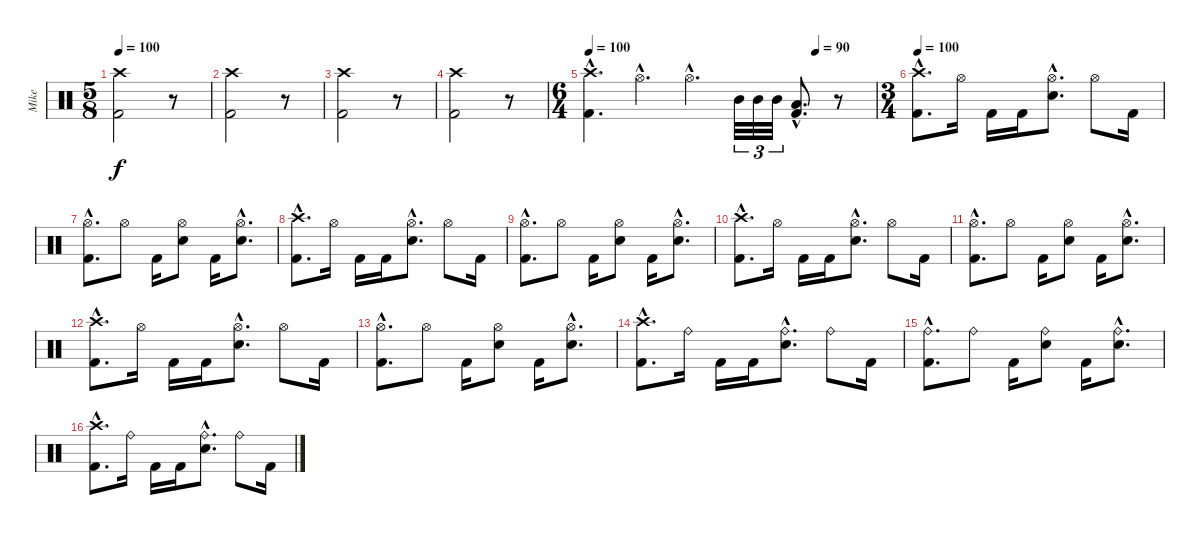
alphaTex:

\track ("Mike" "Mike") {instrument percussion}
\staff {score}
\articulation defaults
\ts (5 8)
\tempo 100
\clef neutral
\ks c
("Crash high (hit)" "Kick (hit) 2").2{dy f} r.8 |
("Crash high (hit)" "Kick (hit) 2").2 r.8 |
("Crash high (hit)" "Kick (hit) 2").2 r.8 |
("Crash high (hit)" "Kick (hit) 2").2 r.8 |
\ts (6 4)
\tempo 100
\tempo (90 0.7916666666666666)
("Crash high (hit)"{hac} "Kick (hit) 2"{hac}).4{d} "Hi-Hat (open)"{hac}.4{d} "Hi-Hat (open)"{hac}.4{d} "Mid Tom (hit)".32{tu (3 2)} "Mid Tom (hit)".32{tu (3 2)} "Mid Tom (hit)".32{tu (3 2)} ("Low Tom (hit)"{hac} "Kick (hit) 2"{hac}).8{d} r.8 |
\ts (3 4)
\tempo 100
("Crash high (hit)"{hac} "Kick (hit) 2"{hac}).8{d} "Hi-Hat (open)".16 "Kick (hit) 2".16 "Kick (hit) 2".16 ("Hi-Hat (open)"{hac} "Snare (hit) 2"{hac}).8{d} "Hi-Hat (open)".8 "Kick (hit) 2".16 |
("Hi-Hat (open)"{hac} "Kick (hit) 2"{hac}).8{d} "Hi-Hat (open)".8 "Kick (hit) 2".16 ("Hi-Hat (open)" "Snare (hit) 2").8 "Kick (hit) 2".16 ("Hi-Hat (open)"{hac} "Snare (hit) 2"{hac}).8{d} |
("Crash high (hit)"{hac} "Kick (hit) 2"{hac}).8{d} "Hi-Hat (open)".16 "Kick (hit) 2".16 "Kick (hit) 2".16 ("Hi-Hat (open)"{hac} "Snare (hit) 2"{hac}).8{d} "Hi-Hat (open)".8 "Kick (hit) 2".16 |
("Hi-Hat (open)"{hac} "Kick (hit) 2"{hac}).8{d} "Hi-Hat (open)".8 "Kick (hit) 2".16 ("Hi-Hat (open)" "Snare (hit) 2").8 "Kick (hit) 2".16 ("Hi-Hat (open)"{hac} "Snare (hit) 2"{hac}).8{d} |
("Crash high (hit)"{hac} "Kick (hit) 2"{hac}).8{d} "Hi-Hat (open)".16 "Kick (hit) 2".16 "Kick (hit) 2".16 ("Hi-Hat (open)"{hac} "Snare (hit) 2"{hac}).8{d} "Hi-Hat (open)".8 "Kick (hit) 2".16 |
("Hi-Hat (open)"{hac} "Kick (hit) 2"{hac}).8{d} "Hi-Hat (open)".8 "Kick (hit) 2".16 ("Hi-Hat (open)" "Snare (hit) 2").8 "Kick (hit) 2".16 ("Hi-Hat (open)"{hac} "Snare (hit) 2"{hac}).8{d} |
("Crash high (hit)"{hac} "Kick (hit) 2"{hac}).8{d} "Hi-Hat (open)".16 "Kick (hit) 2".16 "Kick (hit) 2".16 ("Hi-Hat (open)"{hac} "Snare (hit) 2"{hac}).8{d} "Hi-Hat (open)".8 "Kick (hit) 2".16 |
("Hi-Hat (open)"{hac} "Kick (hit) 2"{hac}).8{d} "Hi-Hat (open)".8 "Kick (hit) 2".16 ("Hi-Hat (open)" "Snare (hit) 2").8 "Kick (hit) 2".16 ("Hi-Hat (open)"{hac} "Snare (hit) 2"{hac}).8{d} |
("Crash high (hit)"{hac} "Kick (hit) 2"{hac}).8{d} "Ride (bell)".16 "Kick (hit) 2".16 "Kick (hit) 2".16 ("Ride (bell)"{hac} "Snare (hit) 2"{hac}).8{d} "Ride (bell)".8 "Kick (hit) 2".16 |
("Ride (bell)"{hac} "Kick (hit) 2"{hac}).8{d} "Ride (bell)".8 "Kick (hit) 2".16 ("Ride (bell)" "Snare (hit) 2").8 "Kick (hit) 2".16 ("Ride (bell)"{hac} "Snare (hit) 2"{hac}).8{d} |
("Crash high (hit)"{hac} "Kick (hit) 2"{hac}).8{d} "Ride (bell)".16 "Kick (hit) 2".16 "Kick (hit) 2".16 ("Ride (bell)"{hac} "Snare (hit) 2"{hac}).8{d} "Ride (bell)".8 "Kick (hit) 2".16
